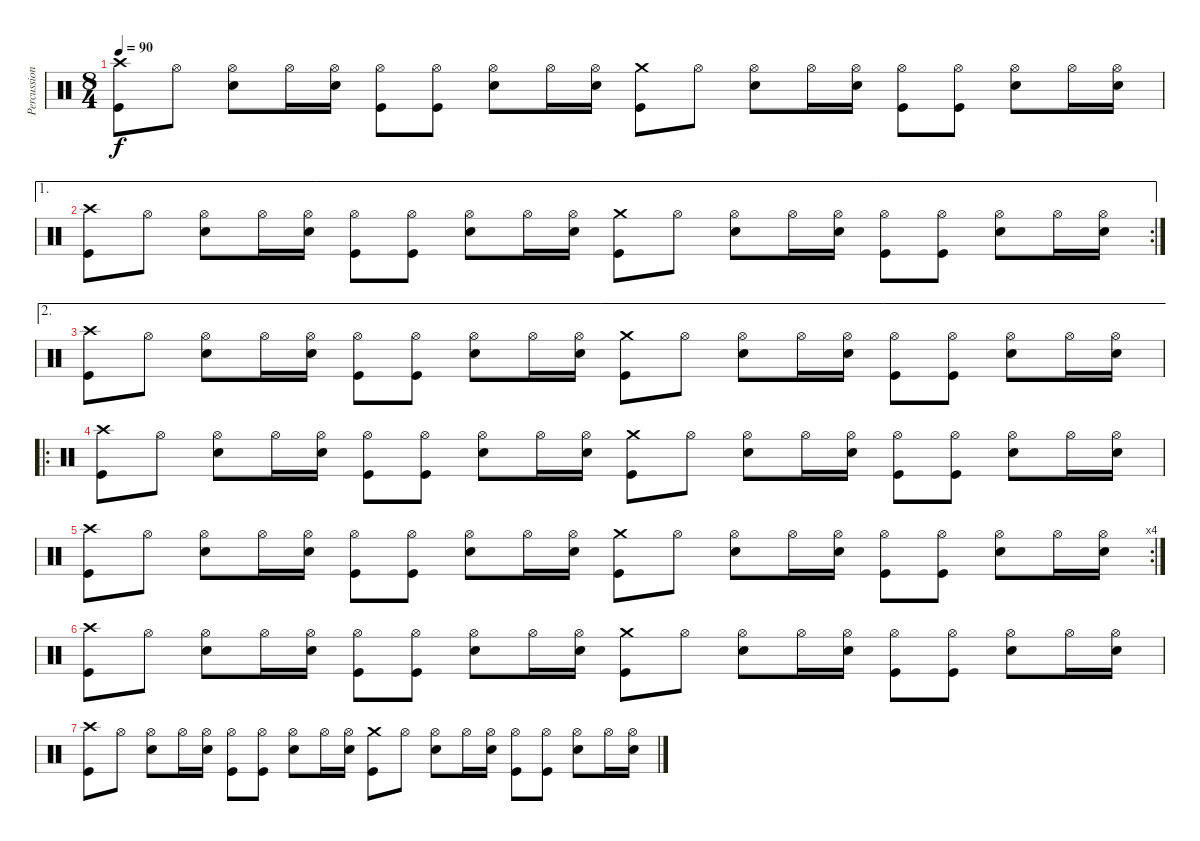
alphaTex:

\track ("Percussion" "Percussion") {instrument percussion}
\staff {score}
\articulation defaults
\ts (8 4)
\tempo 90
\clef neutral
\ks c
("Crash high (hit)" "Kick (hit)").8{dy f} "Hi-Hat (open)".8 ("Hi-Hat (open)" "Snare (hit) 2").8 "Hi-Hat (open)".16 ("Hi-Hat (open)" "Snare (hit) 2").16 ("Hi-Hat (open)" "Kick (hit)").8 ("Hi-Hat (open)" "Kick (hit)").8 ("Hi-Hat (open)" "Snare (hit) 2").8 "Hi-Hat (open)".16 ("Hi-Hat (open)" "Snare (hit) 2").16 ("Crash medium (hit)" "Kick (hit)").8 "Hi-Hat (open)".8 ("Hi-Hat (open)" "Snare (hit) 2").8 "Hi-Hat (open)".16 ("Hi-Hat (open)" "Snare (hit) 2").16 ("Hi-Hat (open)" "Kick (hit)").8 ("Hi-Hat (open)" "Kick (hit)").8 ("Hi-Hat (open)" "Snare (hit) 2").8 "Hi-Hat (open)".16 ("Hi-Hat (open)" "Snare (hit) 2").16 |
\ae 1
\rc 2
("Crash high (hit)" "Kick (hit)").8 "Hi-Hat (open)".8 ("Hi-Hat (open)" "Snare (hit) 2").8 "Hi-Hat (open)".16 ("Hi-Hat (open)" "Snare (hit) 2").16 ("Hi-Hat (open)" "Kick (hit)").8 ("Hi-Hat (open)" "Kick (hit)").8 ("Hi-Hat (open)" "Snare (hit) 2").8 "Hi-Hat (open)".16 ("Hi-Hat (open)" "Snare (hit) 2").16 ("Crash medium (hit)" "Kick (hit)").8 "Hi-Hat (open)".8 ("Hi-Hat (open)" "Snare (hit) 2").8 "Hi-Hat (open)".16 ("Hi-Hat (open)" "Snare (hit) 2").16 ("Hi-Hat (open)" "Kick (hit)").8 ("Hi-Hat (open)" "Kick (hit)").8 ("Hi-Hat (open)" "Snare (hit) 2").8 "Hi-Hat (open)".16 ("Hi-Hat (open)" "Snare (hit) 2").16 |
\ae 2
("Crash high (hit)" "Kick (hit)").8 "Hi-Hat (open)".8 ("Hi-Hat (open)" "Snare (hit) 2").8 "Hi-Hat (open)".16 ("Hi-Hat (open)" "Snare (hit) 2").16 ("Hi-Hat (open)" "Kick (hit)").8 ("Hi-Hat (open)" "Kick (hit)").8 ("Hi-Hat (open)" "Snare (hit) 2").8 "Hi-Hat (open)".16 ("Hi-Hat (open)" "Snare (hit) 2").16 ("Crash medium (hit)" "Kick (hit)").8 "Hi-Hat (open)".8 ("Hi-Hat (open)" "Snare (hit) 2").8 "Hi-Hat (open)".16 ("Hi-Hat (open)" "Snare (hit) 2").16 ("Hi-Hat (open)" "Kick (hit)").8 ("Hi-Hat (open)" "Kick (hit)").8 ("Hi-Hat (open)" "Snare (hit) 2").8 "Hi-Hat (open)".16 ("Hi-Hat (open)" "Snare (hit) 2").16 |
\ro
("Crash high (hit)" "Kick (hit)").8 "Hi-Hat (open)".8 ("Hi-Hat (open)" "Snare (hit) 2").8 "Hi-Hat (open)".16 ("Hi-Hat (open)" "Snare (hit) 2").16 ("Hi-Hat (open)" "Kick (hit)").8 ("Hi-Hat (open)" "Kick (hit)").8 ("Hi-Hat (open)" "Snare (hit) 2").8 "Hi-Hat (open)".16 ("Hi-Hat (open)" "Snare (hit) 2").16 ("Crash medium (hit)" "Kick (hit)").8 "Hi-Hat (open)".8 ("Hi-Hat (open)" "Snare (hit) 2").8 "Hi-Hat (open)".16 ("Hi-Hat (open)" "Snare (hit) 2").16 ("Hi-Hat (open)" "Kick (hit)").8 ("Hi-Hat (open)" "Kick (hit)").8 ("Hi-Hat (open)" "Snare (hit) 2").8 "Hi-Hat (open)".16 ("Hi-Hat (open)" "Snare (hit) 2").16 |
\rc 4
("Crash high (hit)" "Kick (hit)").8 "Hi-Hat (open)".8 ("Hi-Hat (open)" "Snare (hit) 2").8 "Hi-Hat (open)".16 ("Hi-Hat (open)" "Snare (hit) 2").16 ("Hi-Hat (open)" "Kick (hit)").8 ("Hi-Hat (open)" "Kick (hit)").8 ("Hi-Hat (open)" "Snare (hit) 2").8 "Hi-Hat (open)".16 ("Hi-Hat (open)" "Snare (hit) 2").16 ("Crash medium (hit)" "Kick (hit)").8 "Hi-Hat (open)".8 ("Hi-Hat (open)" "Snare (hit) 2").8 "Hi-Hat (open)".16 ("Hi-Hat (open)" "Snare (hit) 2").16 ("Hi-Hat (open)" "Kick (hit)").8 ("Hi-Hat (open)" "Kick (hit)").8 ("Hi-Hat (open)" "Snare (hit) 2").8 "Hi-Hat (open)".16 ("Hi-Hat (open)" "Snare (hit) 2").16 |
("Crash high (hit)" "Kick (hit)").8{volume 13} "Hi-Hat (open)".8 ("Hi-Hat (open)" "Snare (hit) 2").8 "Hi-Hat (open)".16 ("Hi-Hat (open)" "Snare (hit) 2").16 ("Hi-Hat (open)" "Kick (hit)").8 ("Hi-Hat (open)" "Kick (hit)").8 ("Hi-Hat (open)" "Snare (hit) 2").8 "Hi-Hat (open)".16 ("Hi-Hat (open)" "Snare (hit) 2").16 ("Crash medium (hit)" "Kick (hit)").8{volume 10} "Hi-Hat (open)".8 ("Hi-Hat (open)" "Snare (hit) 2").8 "Hi-Hat (open)".16 ("Hi-Hat (open)" "Snare (hit) 2").16 ("Hi-Hat (open)" "Kick (hit)").8{volume 8} ("Hi-Hat (open)" "Kick (hit)").8 ("Hi-Hat (open)" "Snare (hit) 2").8{volume 6} "Hi-Hat (open)".16 ("Hi-Hat (open)" "Snare (hit) 2").16 |
("Crash high (hit)" "Kick (hit)").8{volume 5} "Hi-Hat (open)".8 ("Hi-Hat (open)" "Snare (hit) 2").8 "Hi-Hat (open)".16 ("Hi-Hat (open)" "Snare (hit) 2").16 ("Hi-Hat (open)" "Kick (hit)").8 ("Hi-Hat (open)" "Kick (hit)").8 ("Hi-Hat (open)" "Snare (hit) 2").8{volume 3} "Hi-Hat (open)".16 ("Hi-Hat (open)" "Snare (hit) 2").16 ("Crash medium (hit)" "Kick (hit)").8 "Hi-Hat (open)".8 ("Hi-Hat (open)" "Snare (hit) 2").8{volume 3} "Hi-Hat (open)".16 ("Hi-Hat (open)" "Snare (hit) 2").16 ("Hi-Hat (open)" "Kick (hit)").8 ("Hi-Hat (open)" "Kick (hit)").8{volume 2} ("Hi-Hat (open)" "Snare (hit) 2").8 "Hi-Hat (open)".16 ("Hi-Hat (open)" "Snare (hit) 2").16
